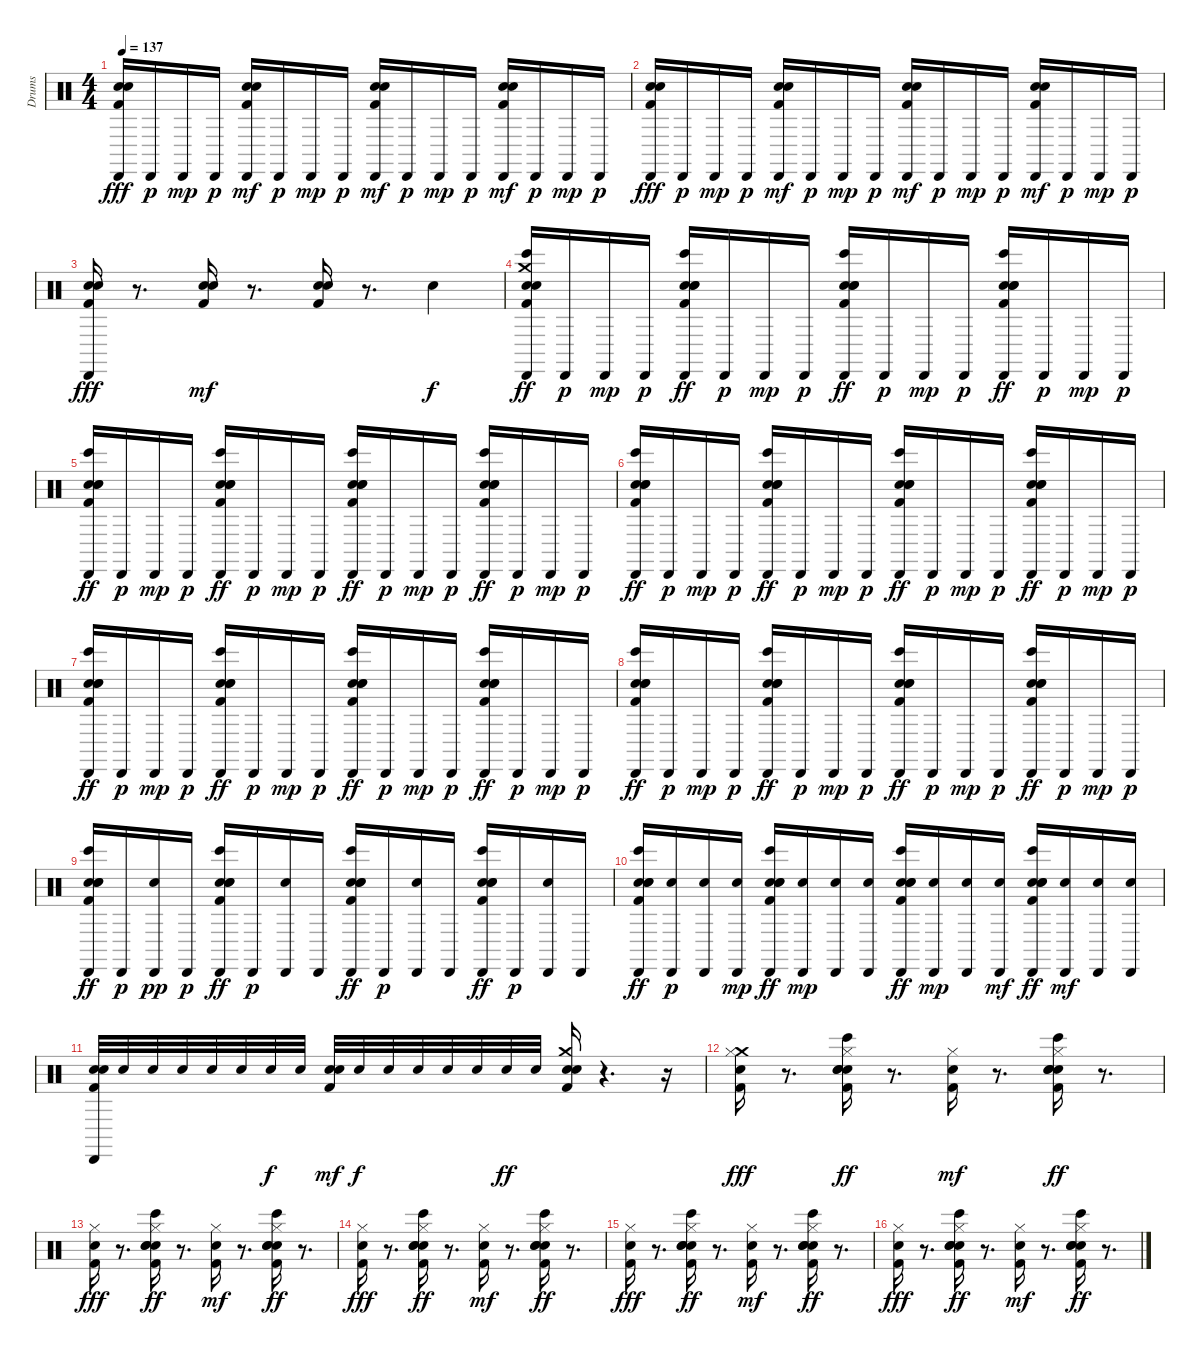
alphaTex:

\track ("Drums" "Drums") {instrument percussion}
\staff {score}
\articulation defaults
\ts (4 4)
\tempo 137
\clef neutral
\ks c
("Cabasa (hit)" "Kick (hit) 2" "Snare (hit)" "Hand Clap (hit)").16{dy fff} "Cabasa (hit)".16{dy p} "Cabasa (hit)".16{dy mp} "Cabasa (hit)".16{dy p} ("Cabasa (hit)" "Snare (hit)" "Kick (hit) 2" "Hand Clap (hit)").16{dy mf} "Cabasa (hit)".16{dy p} "Cabasa (hit)".16{dy mp} "Cabasa (hit)".16{dy p} ("Cabasa (hit)" "Snare (hit)" "Kick (hit) 2" "Hand Clap (hit)").16{dy mf} "Cabasa (hit)".16{dy p} "Cabasa (hit)".16{dy mp} "Cabasa (hit)".16{dy p} ("Cabasa (hit)" "Snare (hit)" "Kick (hit) 2" "Hand Clap (hit)").16{dy mf} "Cabasa (hit)".16{dy p} "Cabasa (hit)".16{dy mp} "Cabasa (hit)".16{dy p} |
("Cabasa (hit)" "Kick (hit) 2" "Snare (hit)" "Hand Clap (hit)").16{dy fff} "Cabasa (hit)".16{dy p} "Cabasa (hit)".16{dy mp} "Cabasa (hit)".16{dy p} ("Cabasa (hit)" "Snare (hit)" "Kick (hit) 2" "Hand Clap (hit)").16{dy mf} "Cabasa (hit)".16{dy p} "Cabasa (hit)".16{dy mp} "Cabasa (hit)".16{dy p} ("Cabasa (hit)" "Snare (hit)" "Kick (hit) 2" "Hand Clap (hit)").16{dy mf} "Cabasa (hit)".16{dy p} "Cabasa (hit)".16{dy mp} "Cabasa (hit)".16{dy p} ("Cabasa (hit)" "Snare (hit)" "Kick (hit) 2" "Hand Clap (hit)").16{dy mf} "Cabasa (hit)".16{dy p} "Cabasa (hit)".16{dy mp} "Cabasa (hit)".16{dy p} |
("Cabasa (hit)" "Kick (hit) 2" "Snare (hit)" "Hand Clap (hit)").16{dy fff} r.8{d} ("Snare (hit)" "Kick (hit) 2" "Hand Clap (hit)").16{dy mf} r.8{d} ("Snare (hit)" "Kick (hit) 2" "Hand Clap (hit)").16 r.8{d} "Hand Clap (hit)".4{dy f} |
("Crash medium (hit)" "Cabasa (hit)" "Kick (hit) 2" "Snare (hit)" "Bongo High (hit)" "Snare (hit) 2").16{dy ff} "Cabasa (hit)".16{dy p} "Cabasa (hit)".16{dy mp} "Cabasa (hit)".16{dy p} ("Cabasa (hit)" "Snare (hit)" "Kick (hit) 2" "Hand Clap (hit)" "Snare (hit) 2" "Bongo High (hit)").16{dy ff} "Cabasa (hit)".16{dy p} "Cabasa (hit)".16{dy mp} "Cabasa (hit)".16{dy p} ("Cabasa (hit)" "Snare (hit)" "Kick (hit) 2" "Bongo High (hit)" "Snare (hit) 2" "Hand Clap (hit)").16{dy ff} "Cabasa (hit)".16{dy p} "Cabasa (hit)".16{dy mp} "Cabasa (hit)".16{dy p} ("Cabasa (hit)" "Snare (hit)" "Kick (hit) 2" "Hand Clap (hit)" "Snare (hit) 2" "Bongo High (hit)").16{dy ff} "Cabasa (hit)".16{dy p} "Cabasa (hit)".16{dy mp} "Cabasa (hit)".16{dy p} |
("Cabasa (hit)" "Kick (hit) 2" "Snare (hit)" "Bongo High (hit)" "Snare (hit) 2" "Hand Clap (hit)").16{dy ff} "Cabasa (hit)".16{dy p} "Cabasa (hit)".16{dy mp} "Cabasa (hit)".16{dy p} ("Cabasa (hit)" "Snare (hit)" "Kick (hit) 2" "Hand Clap (hit)" "Snare (hit) 2" "Bongo High (hit)").16{dy ff} "Cabasa (hit)".16{dy p} "Cabasa (hit)".16{dy mp} "Cabasa (hit)".16{dy p} ("Cabasa (hit)" "Snare (hit)" "Kick (hit) 2" "Bongo High (hit)" "Snare (hit) 2" "Hand Clap (hit)").16{dy ff} "Cabasa (hit)".16{dy p} "Cabasa (hit)".16{dy mp} "Cabasa (hit)".16{dy p} ("Cabasa (hit)" "Snare (hit)" "Kick (hit) 2" "Hand Clap (hit)" "Snare (hit) 2" "Bongo High (hit)").16{dy ff} "Cabasa (hit)".16{dy p} "Cabasa (hit)".16{dy mp} "Cabasa (hit)".16{dy p} |
("Cabasa (hit)" "Kick (hit) 2" "Snare (hit)" "Bongo High (hit)" "Snare (hit) 2" "Hand Clap (hit)").16{dy ff} "Cabasa (hit)".16{dy p} "Cabasa (hit)".16{dy mp} "Cabasa (hit)".16{dy p} ("Cabasa (hit)" "Snare (hit)" "Kick (hit) 2" "Hand Clap (hit)" "Snare (hit) 2" "Bongo High (hit)").16{dy ff} "Cabasa (hit)".16{dy p} "Cabasa (hit)".16{dy mp} "Cabasa (hit)".16{dy p} ("Cabasa (hit)" "Snare (hit)" "Kick (hit) 2" "Bongo High (hit)" "Snare (hit) 2" "Hand Clap (hit)").16{dy ff} "Cabasa (hit)".16{dy p} "Cabasa (hit)".16{dy mp} "Cabasa (hit)".16{dy p} ("Cabasa (hit)" "Snare (hit)" "Kick (hit) 2" "Hand Clap (hit)" "Snare (hit) 2" "Bongo High (hit)").16{dy ff} "Cabasa (hit)".16{dy p} "Cabasa (hit)".16{dy mp} "Cabasa (hit)".16{dy p} |
("Cabasa (hit)" "Kick (hit) 2" "Snare (hit)" "Bongo High (hit)" "Snare (hit) 2" "Hand Clap (hit)").16{dy ff} "Cabasa (hit)".16{dy p} "Cabasa (hit)".16{dy mp} "Cabasa (hit)".16{dy p} ("Cabasa (hit)" "Snare (hit)" "Kick (hit) 2" "Hand Clap (hit)" "Snare (hit) 2" "Bongo High (hit)").16{dy ff} "Cabasa (hit)".16{dy p} "Cabasa (hit)".16{dy mp} "Cabasa (hit)".16{dy p} ("Cabasa (hit)" "Snare (hit)" "Kick (hit) 2" "Bongo High (hit)" "Snare (hit) 2" "Hand Clap (hit)").16{dy ff} "Cabasa (hit)".16{dy p} "Cabasa (hit)".16{dy mp} "Cabasa (hit)".16{dy p} ("Cabasa (hit)" "Snare (hit)" "Kick (hit) 2" "Hand Clap (hit)" "Snare (hit) 2" "Bongo High (hit)").16{dy ff} "Cabasa (hit)".16{dy p} "Cabasa (hit)".16{dy mp} "Cabasa (hit)".16{dy p} |
("Cabasa (hit)" "Kick (hit) 2" "Snare (hit)" "Bongo High (hit)" "Snare (hit) 2" "Hand Clap (hit)").16{dy ff} "Cabasa (hit)".16{dy p} "Cabasa (hit)".16{dy mp} "Cabasa (hit)".16{dy p} ("Cabasa (hit)" "Snare (hit)" "Kick (hit) 2" "Hand Clap (hit)" "Snare (hit) 2" "Bongo High (hit)").16{dy ff} "Cabasa (hit)".16{dy p} "Cabasa (hit)".16{dy mp} "Cabasa (hit)".16{dy p} ("Cabasa (hit)" "Snare (hit)" "Kick (hit) 2" "Bongo High (hit)" "Snare (hit) 2" "Hand Clap (hit)").16{dy ff} "Cabasa (hit)".16{dy p} "Cabasa (hit)".16{dy mp} "Cabasa (hit)".16{dy p} ("Cabasa (hit)" "Snare (hit)" "Kick (hit) 2" "Hand Clap (hit)" "Snare (hit) 2" "Bongo High (hit)").16{dy ff} "Cabasa (hit)".16{dy p} "Cabasa (hit)".16{dy mp} "Cabasa (hit)".16{dy p} |
("Cabasa (hit)" "Kick (hit) 2" "Snare (hit)" "Bongo High (hit)" "Snare (hit) 2" "Hand Clap (hit)").16{dy ff} "Cabasa (hit)".16{dy p} ("Cabasa (hit)" "Electric Snare (hit)").16{dy pp} "Cabasa (hit)".16{dy p} ("Cabasa (hit)" "Snare (hit)" "Kick (hit) 2" "Hand Clap (hit)" "Snare (hit) 2" "Bongo High (hit)").16{dy ff} "Cabasa (hit)".16{dy p} ("Cabasa (hit)" "Electric Snare (hit)").16 "Cabasa (hit)".16 ("Cabasa (hit)" "Snare (hit)" "Kick (hit) 2" "Bongo High (hit)" "Snare (hit) 2" "Hand Clap (hit)").16{dy ff} "Cabasa (hit)".16{dy p} ("Cabasa (hit)" "Electric Snare (hit)").16 "Cabasa (hit)".16 ("Cabasa (hit)" "Snare (hit)" "Kick (hit) 2" "Hand Clap (hit)" "Snare (hit) 2" "Bongo High (hit)").16{dy ff} "Cabasa (hit)".16{dy p} ("Cabasa (hit)" "Electric Snare (hit)").16 "Cabasa (hit)".16 |
("Cabasa (hit)" "Kick (hit) 2" "Snare (hit)" "Bongo High (hit)" "Snare (hit) 2" "Hand Clap (hit)").16{dy ff} ("Cabasa (hit)" "Electric Snare (hit)").16{dy p} ("Cabasa (hit)" "Electric Snare (hit)").16 ("Cabasa (hit)" "Electric Snare (hit)").16{dy mp} ("Cabasa (hit)" "Snare (hit)" "Kick (hit) 2" "Hand Clap (hit)" "Snare (hit) 2" "Bongo High (hit)").16{dy ff} ("Cabasa (hit)" "Electric Snare (hit)").16{dy mp} ("Cabasa (hit)" "Electric Snare (hit)").16 ("Cabasa (hit)" "Electric Snare (hit)").16 ("Cabasa (hit)" "Snare (hit)" "Kick (hit) 2" "Bongo High (hit)" "Snare (hit) 2" "Hand Clap (hit)").16{dy ff} ("Cabasa (hit)" "Electric Snare (hit)").16{dy mp} ("Cabasa (hit)" "Electric Snare (hit)").16 ("Cabasa (hit)" "Electric Snare (hit)").16{dy mf} ("Cabasa (hit)" "Snare (hit)" "Kick (hit) 2" "Hand Clap (hit)" "Snare (hit) 2" "Bongo High (hit)").16{dy ff} ("Cabasa (hit)" "Electric Snare (hit)").16{dy mf} ("Cabasa (hit)" "Electric Snare (hit)").16 ("Cabasa (hit)" "Electric Snare (hit)").16 |
("Cabasa (hit)" "Kick (hit) 2" "Snare (hit)" "Electric Snare (hit)").32 "Electric Snare (hit)".32 "Electric Snare (hit)".32 "Electric Snare (hit)".32 "Electric Snare (hit)".32 "Electric Snare (hit)".32 "Electric Snare (hit)".32{dy f} "Electric Snare (hit)".32 ("Snare (hit)" "Kick (hit) 2" "Electric Snare (hit)").32{dy mf} "Electric Snare (hit)".32{dy f} "Electric Snare (hit)".32 "Electric Snare (hit)".32 "Electric Snare (hit)".32 "Electric Snare (hit)".32 "Electric Snare (hit)".32{dy ff} "Electric Snare (hit)".32 ("Crash medium (hit)" "Snare (hit)" "Kick (hit) 2" "Electric Snare (hit)").16 r.4{d} r.16 |
("Crash medium (hit)" "Kick (hit) 2" "Snare (hit)" "Hi-Hat (closed)").16{dy fff} r.8{d} ("Snare (hit)" "Kick (hit) 2" "Bongo High (hit)" "Snare (hit) 2" "Hand Clap (hit)" "Hi-Hat (closed)").16{dy ff} r.8{d} ("Snare (hit)" "Kick (hit) 2" "Hi-Hat (closed)").16{dy mf} r.8{d} ("Snare (hit)" "Kick (hit) 2" "Bongo High (hit)" "Snare (hit) 2" "Hand Clap (hit)" "Hi-Hat (closed)").16{dy ff} r.8{d} |
("Kick (hit) 2" "Snare (hit)" "Hi-Hat (closed)").16{dy fff} r.8{d} ("Snare (hit)" "Kick (hit) 2" "Bongo High (hit)" "Snare (hit) 2" "Hand Clap (hit)" "Hi-Hat (closed)").16{dy ff} r.8{d} ("Snare (hit)" "Kick (hit) 2" "Hi-Hat (closed)").16{dy mf} r.8{d} ("Snare (hit)" "Kick (hit) 2" "Bongo High (hit)" "Snare (hit) 2" "Hand Clap (hit)" "Hi-Hat (closed)").16{dy ff} r.8{d} |
("Kick (hit) 2" "Snare (hit)" "Hi-Hat (closed)").16{dy fff} r.8{d} ("Snare (hit)" "Kick (hit) 2" "Bongo High (hit)" "Snare (hit) 2" "Hand Clap (hit)" "Hi-Hat (closed)").16{dy ff} r.8{d} ("Snare (hit)" "Kick (hit) 2" "Hi-Hat (closed)").16{dy mf} r.8{d} ("Snare (hit)" "Kick (hit) 2" "Bongo High (hit)" "Snare (hit) 2" "Hand Clap (hit)" "Hi-Hat (closed)").16{dy ff} r.8{d} |
("Kick (hit) 2" "Snare (hit)" "Hi-Hat (closed)").16{dy fff} r.8{d} ("Snare (hit)" "Kick (hit) 2" "Bongo High (hit)" "Snare (hit) 2" "Hand Clap (hit)" "Hi-Hat (closed)").16{dy ff} r.8{d} ("Snare (hit)" "Kick (hit) 2" "Hi-Hat (closed)").16{dy mf} r.8{d} ("Snare (hit)" "Kick (hit) 2" "Bongo High (hit)" "Snare (hit) 2" "Hand Clap (hit)" "Hi-Hat (closed)").16{dy ff} r.8{d} |
("Kick (hit) 2" "Snare (hit)" "Hi-Hat (closed)").16{dy fff} r.8{d} ("Snare (hit)" "Kick (hit) 2" "Bongo High (hit)" "Snare (hit) 2" "Hand Clap (hit)" "Hi-Hat (closed)").16{dy ff} r.8{d} ("Snare (hit)" "Kick (hit) 2" "Hi-Hat (closed)").16{dy mf} r.8{d} ("Snare (hit)" "Kick (hit) 2" "Bongo High (hit)" "Snare (hit) 2" "Hand Clap (hit)" "Hi-Hat (closed)").16{dy ff} r.8{d}
